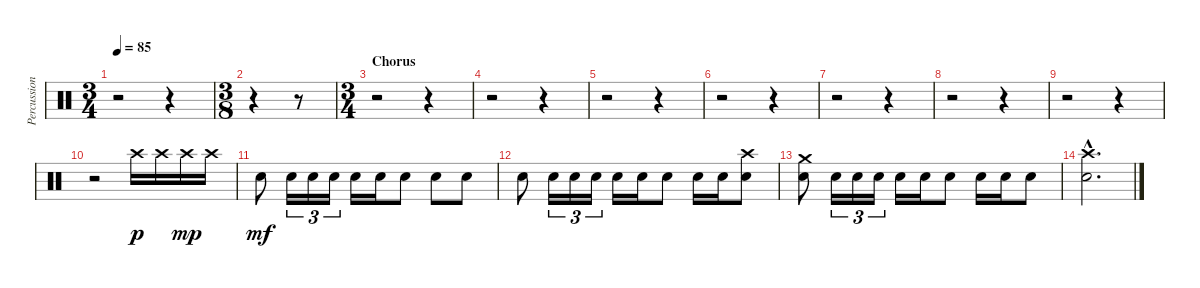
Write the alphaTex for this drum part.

\track ("Percussion" "Percussion") {instrument percussion}
\staff {score}
\articulation defaults
\ts (3 4)
\tempo 85
\clef neutral
\ks c
r.2{dy p} r.4 |
\ts (3 8)
r.4 r.8 |
\ts (3 4)
\section ("" "Chorus")
r.2 r.4 |
r.2 r.4 |
r.2 r.4 |
r.2 r.4 |
r.2 r.4 |
r.2 r.4 |
r.2 r.4 |
r.2 "Crash high (hit)".16 "Crash high (hit)".16 "Crash high (hit)".16{dy mp} "Crash high (hit)".16 |
"Electric Snare (hit)".8{dy mf} "Electric Snare (hit)".16{tu (3 2)} "Electric Snare (hit)".16{tu (3 2)} "Electric Snare (hit)".16{tu (3 2)} "Electric Snare (hit)".16 "Electric Snare (hit)".16 "Electric Snare (hit)".8 "Electric Snare (hit)".8 "Electric Snare (hit)".8 |
"Electric Snare (hit)".8 "Electric Snare (hit)".16{tu (3 2)} "Electric Snare (hit)".16{tu (3 2)} "Electric Snare (hit)".16{tu (3 2)} "Electric Snare (hit)".16 "Electric Snare (hit)".16 "Electric Snare (hit)".8 "Electric Snare (hit)".16 "Electric Snare (hit)".16 ("Crash high (hit)" "Electric Snare (hit)").8 |
("Crash medium (hit)" "Electric Snare (hit)").8 "Electric Snare (hit)".16{tu (3 2)} "Electric Snare (hit)".16{tu (3 2)} "Electric Snare (hit)".16{tu (3 2)} "Electric Snare (hit)".16 "Electric Snare (hit)".16 "Electric Snare (hit)".8 "Electric Snare (hit)".16 "Electric Snare (hit)".16 "Electric Snare (hit)".8 |
("Crash high (hit)"{hac} "Electric Snare (hit)"{hac}).2{d}
